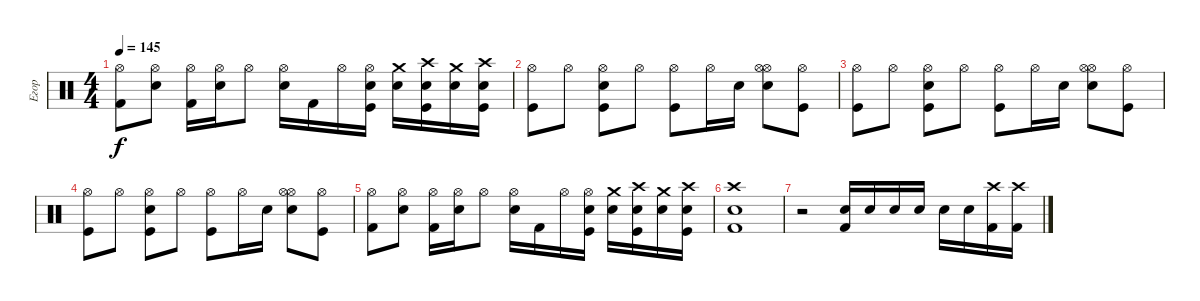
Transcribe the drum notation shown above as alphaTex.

\track ("Егор" "Егор") {instrument percussion}
\staff {score}
\articulation defaults
\ts (4 4)
\tempo 145
\clef neutral
\ks c
("Hi-Hat (open)" "Kick (hit) 2").8{dy f} ("Hi-Hat (open)" "Electric Snare (hit)").8 ("Hi-Hat (open)" "Kick (hit) 2").16 ("Hi-Hat (open)" "Electric Snare (hit)").16 "Hi-Hat (open)".8 ("Hi-Hat (open)" "Electric Snare (hit)").16 "Kick (hit) 2".16 "Hi-Hat (open)".16 ("Hi-Hat (open)" "Electric Snare (hit)" "Kick (hit)").16 ("Crash medium (hit)" "Electric Snare (hit)").16 ("Crash high (hit)" "Electric Snare (hit)" "Kick (hit)").16 ("Crash medium (hit)" "Electric Snare (hit)").16 ("Crash high (hit)" "Electric Snare (hit)" "Kick (hit)").16 |
("Hi-Hat (open)" "Kick (hit)").8 "Hi-Hat (open)".8 ("Hi-Hat (open)" "Electric Snare (hit)" "Kick (hit)").8 "Hi-Hat (open)".8 ("Hi-Hat (open)" "Kick (hit)").8 "Hi-Hat (open)".16 "Electric Snare (hit)".16 ("Hi-Hat (open)" "Electric Snare (hit)" "Hi-Hat (open)").8 ("Hi-Hat (open)" "Kick (hit)").8 |
("Hi-Hat (open)" "Kick (hit)").8 "Hi-Hat (open)".8 ("Hi-Hat (open)" "Electric Snare (hit)" "Kick (hit)").8 "Hi-Hat (open)".8 ("Hi-Hat (open)" "Kick (hit)").8 "Hi-Hat (open)".16 "Electric Snare (hit)".16 ("Hi-Hat (open)" "Electric Snare (hit)" "Hi-Hat (open)").8 ("Hi-Hat (open)" "Kick (hit)").8 |
("Hi-Hat (open)" "Kick (hit)").8 "Hi-Hat (open)".8 ("Hi-Hat (open)" "Electric Snare (hit)" "Kick (hit)").8 "Hi-Hat (open)".8 ("Hi-Hat (open)" "Kick (hit)").8 "Hi-Hat (open)".16 "Electric Snare (hit)".16 ("Hi-Hat (open)" "Electric Snare (hit)" "Hi-Hat (open)").8 ("Hi-Hat (open)" "Kick (hit)").8 |
("Hi-Hat (open)" "Kick (hit) 2").8 ("Hi-Hat (open)" "Electric Snare (hit)").8 ("Hi-Hat (open)" "Kick (hit) 2").16 ("Hi-Hat (open)" "Electric Snare (hit)").16 "Hi-Hat (open)".8 ("Hi-Hat (open)" "Electric Snare (hit)").16 "Kick (hit) 2".16 "Hi-Hat (open)".16 ("Hi-Hat (open)" "Electric Snare (hit)" "Kick (hit)").16 ("Crash medium (hit)" "Electric Snare (hit)").16 ("Crash high (hit)" "Electric Snare (hit)" "Kick (hit)").16 ("Crash medium (hit)" "Electric Snare (hit)").16 ("Crash high (hit)" "Electric Snare (hit)" "Kick (hit)").16 |
("Crash high (hit)" "Electric Snare (hit)" "Kick (hit) 2").1 |
r.2 ("Electric Snare (hit)" "Kick (hit) 2").16 "Electric Snare (hit)".16 "Electric Snare (hit)".16 "Electric Snare (hit)".16 "Electric Snare (hit)".16 "Electric Snare (hit)".16 ("Crash high (hit)" "Kick (hit) 2").16 ("Crash high (hit)" "Kick (hit) 2").16
